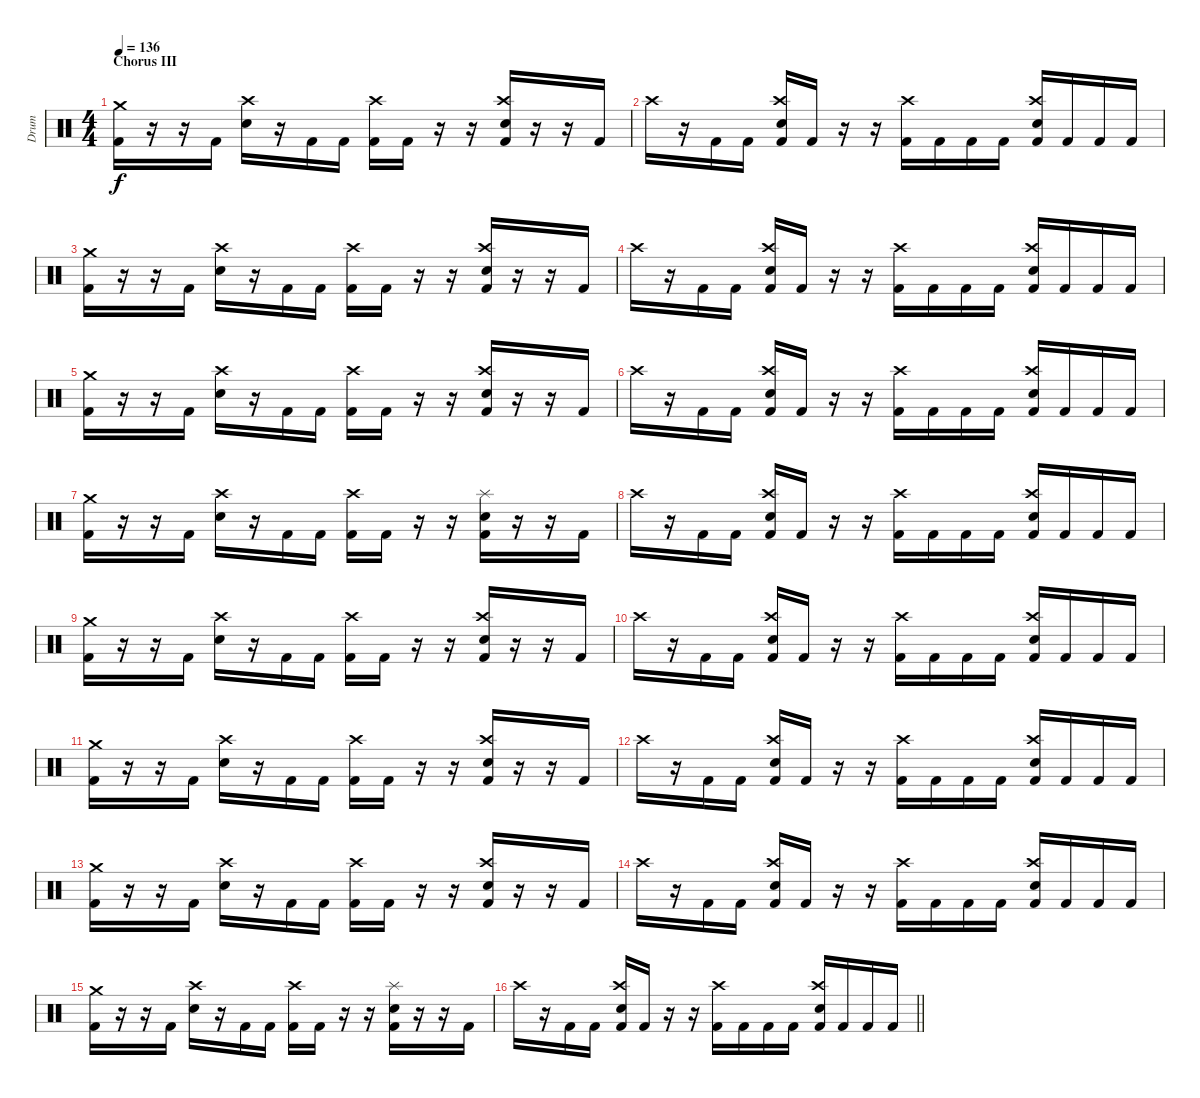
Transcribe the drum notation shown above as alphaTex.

\track ("Drum" "Drum") {instrument percussion}
\staff {score}
\articulation defaults
\ts (4 4)
\section ("" "Chorus III")
\tempo 136
\clef neutral
\ks c
("Crash medium (hit)" "Kick (hit) 2").16{dy f} r.16 r.16 "Kick (hit) 2".16 ("Crash high (hit)" "Snare (hit) 2").16 r.16 "Kick (hit) 2".16 "Kick (hit) 2".16 ("Crash high (hit)" "Kick (hit) 2").16 "Kick (hit) 2".16 r.16 r.16 ("Crash high (hit)" "Snare (hit) 2" "Kick (hit) 2").16 r.16 r.16 "Kick (hit) 2".16 |
"Crash high (hit)".16 r.16 "Kick (hit) 2".16 "Kick (hit) 2".16 ("Crash high (hit)" "Snare (hit) 2" "Kick (hit) 2").16 "Kick (hit) 2".16 r.16 r.16 ("Crash high (hit)" "Kick (hit) 2").16 "Kick (hit) 2".16 "Kick (hit) 2".16 "Kick (hit) 2".16 ("Crash high (hit)" "Snare (hit) 2" "Kick (hit) 2").16 "Kick (hit) 2".16 "Kick (hit) 2".16 "Kick (hit) 2".16 |
("Crash medium (hit)" "Kick (hit) 2").16 r.16 r.16 "Kick (hit) 2".16 ("Crash high (hit)" "Snare (hit) 2").16 r.16 "Kick (hit) 2".16 "Kick (hit) 2".16 ("Crash high (hit)" "Kick (hit) 2").16 "Kick (hit) 2".16 r.16 r.16 ("Crash high (hit)" "Snare (hit) 2" "Kick (hit) 2").16 r.16 r.16 "Kick (hit) 2".16 |
"Crash high (hit)".16 r.16 "Kick (hit) 2".16 "Kick (hit) 2".16 ("Crash high (hit)" "Snare (hit) 2" "Kick (hit) 2").16 "Kick (hit) 2".16 r.16 r.16 ("Crash high (hit)" "Kick (hit) 2").16 "Kick (hit) 2".16 "Kick (hit) 2".16 "Kick (hit) 2".16 ("Crash high (hit)" "Snare (hit) 2" "Kick (hit) 2").16 "Kick (hit) 2".16 "Kick (hit) 2".16 "Kick (hit) 2".16 |
("Crash medium (hit)" "Kick (hit) 2").16 r.16 r.16 "Kick (hit) 2".16 ("Crash high (hit)" "Snare (hit) 2").16 r.16 "Kick (hit) 2".16 "Kick (hit) 2".16 ("Crash high (hit)" "Kick (hit) 2").16 "Kick (hit) 2".16 r.16 r.16 ("Crash high (hit)" "Snare (hit) 2" "Kick (hit) 2").16 r.16 r.16 "Kick (hit) 2".16 |
"Crash high (hit)".16 r.16 "Kick (hit) 2".16 "Kick (hit) 2".16 ("Crash high (hit)" "Snare (hit) 2" "Kick (hit) 2").16 "Kick (hit) 2".16 r.16 r.16 ("Crash high (hit)" "Kick (hit) 2").16 "Kick (hit) 2".16 "Kick (hit) 2".16 "Kick (hit) 2".16 ("Crash high (hit)" "Snare (hit) 2" "Kick (hit) 2").16 "Kick (hit) 2".16 "Kick (hit) 2".16 "Kick (hit) 2".16 |
("Crash medium (hit)" "Kick (hit) 2").16 r.16 r.16 "Kick (hit) 2".16 ("Crash high (hit)" "Snare (hit) 2").16 r.16 "Kick (hit) 2".16 "Kick (hit) 2".16 ("Crash high (hit)" "Kick (hit) 2").16 "Kick (hit) 2".16 r.16 r.16 ("Splash (hit)" "Snare (hit) 2" "Kick (hit) 2").16 r.16 r.16 "Kick (hit) 2".16 |
"Crash high (hit)".16 r.16 "Kick (hit) 2".16 "Kick (hit) 2".16 ("Crash high (hit)" "Snare (hit) 2" "Kick (hit) 2").16 "Kick (hit) 2".16 r.16 r.16 ("Crash high (hit)" "Kick (hit) 2").16 "Kick (hit) 2".16 "Kick (hit) 2".16 "Kick (hit) 2".16 ("Crash high (hit)" "Snare (hit) 2" "Kick (hit) 2").16 "Kick (hit) 2".16 "Kick (hit) 2".16 "Kick (hit) 2".16 |
("Crash medium (hit)" "Kick (hit) 2").16 r.16 r.16 "Kick (hit) 2".16 ("Crash high (hit)" "Snare (hit) 2").16 r.16 "Kick (hit) 2".16 "Kick (hit) 2".16 ("Crash high (hit)" "Kick (hit) 2").16 "Kick (hit) 2".16 r.16 r.16 ("Crash high (hit)" "Snare (hit) 2" "Kick (hit) 2").16 r.16 r.16 "Kick (hit) 2".16 |
"Crash high (hit)".16 r.16 "Kick (hit) 2".16 "Kick (hit) 2".16 ("Crash high (hit)" "Snare (hit) 2" "Kick (hit) 2").16 "Kick (hit) 2".16 r.16 r.16 ("Crash high (hit)" "Kick (hit) 2").16 "Kick (hit) 2".16 "Kick (hit) 2".16 "Kick (hit) 2".16 ("Crash high (hit)" "Snare (hit) 2" "Kick (hit) 2").16 "Kick (hit) 2".16 "Kick (hit) 2".16 "Kick (hit) 2".16 |
("Crash medium (hit)" "Kick (hit) 2").16 r.16 r.16 "Kick (hit) 2".16 ("Crash high (hit)" "Snare (hit) 2").16 r.16 "Kick (hit) 2".16 "Kick (hit) 2".16 ("Crash high (hit)" "Kick (hit) 2").16 "Kick (hit) 2".16 r.16 r.16 ("Crash high (hit)" "Snare (hit) 2" "Kick (hit) 2").16 r.16 r.16 "Kick (hit) 2".16 |
"Crash high (hit)".16 r.16 "Kick (hit) 2".16 "Kick (hit) 2".16 ("Crash high (hit)" "Snare (hit) 2" "Kick (hit) 2").16 "Kick (hit) 2".16 r.16 r.16 ("Crash high (hit)" "Kick (hit) 2").16 "Kick (hit) 2".16 "Kick (hit) 2".16 "Kick (hit) 2".16 ("Crash high (hit)" "Snare (hit) 2" "Kick (hit) 2").16 "Kick (hit) 2".16 "Kick (hit) 2".16 "Kick (hit) 2".16 |
("Crash medium (hit)" "Kick (hit) 2").16 r.16 r.16 "Kick (hit) 2".16 ("Crash high (hit)" "Snare (hit) 2").16 r.16 "Kick (hit) 2".16 "Kick (hit) 2".16 ("Crash high (hit)" "Kick (hit) 2").16 "Kick (hit) 2".16 r.16 r.16 ("Crash high (hit)" "Snare (hit) 2" "Kick (hit) 2").16 r.16 r.16 "Kick (hit) 2".16 |
"Crash high (hit)".16 r.16 "Kick (hit) 2".16 "Kick (hit) 2".16 ("Crash high (hit)" "Snare (hit) 2" "Kick (hit) 2").16 "Kick (hit) 2".16 r.16 r.16 ("Crash high (hit)" "Kick (hit) 2").16 "Kick (hit) 2".16 "Kick (hit) 2".16 "Kick (hit) 2".16 ("Crash high (hit)" "Snare (hit) 2" "Kick (hit) 2").16 "Kick (hit) 2".16 "Kick (hit) 2".16 "Kick (hit) 2".16 |
("Crash medium (hit)" "Kick (hit) 2").16 r.16 r.16 "Kick (hit) 2".16 ("Crash high (hit)" "Snare (hit) 2").16 r.16 "Kick (hit) 2".16 "Kick (hit) 2".16 ("Crash high (hit)" "Kick (hit) 2").16 "Kick (hit) 2".16 r.16 r.16 ("Splash (hit)" "Snare (hit) 2" "Kick (hit) 2").16 r.16 r.16 "Kick (hit) 2".16 |
\barLineRight lightlight "Crash high (hit)".16
r.16 "Kick (hit) 2".16 "Kick (hit) 2".16 ("Crash high (hit)" "Snare (hit) 2" "Kick (hit) 2").16 "Kick (hit) 2".16 r.16 r.16 ("Crash high (hit)" "Kick (hit) 2").16 "Kick (hit) 2".16 "Kick (hit) 2".16 "Kick (hit) 2".16 ("Crash high (hit)" "Snare (hit) 2" "Kick (hit) 2").16 "Kick (hit) 2".16 "Kick (hit) 2".16 "Kick (hit) 2".16
